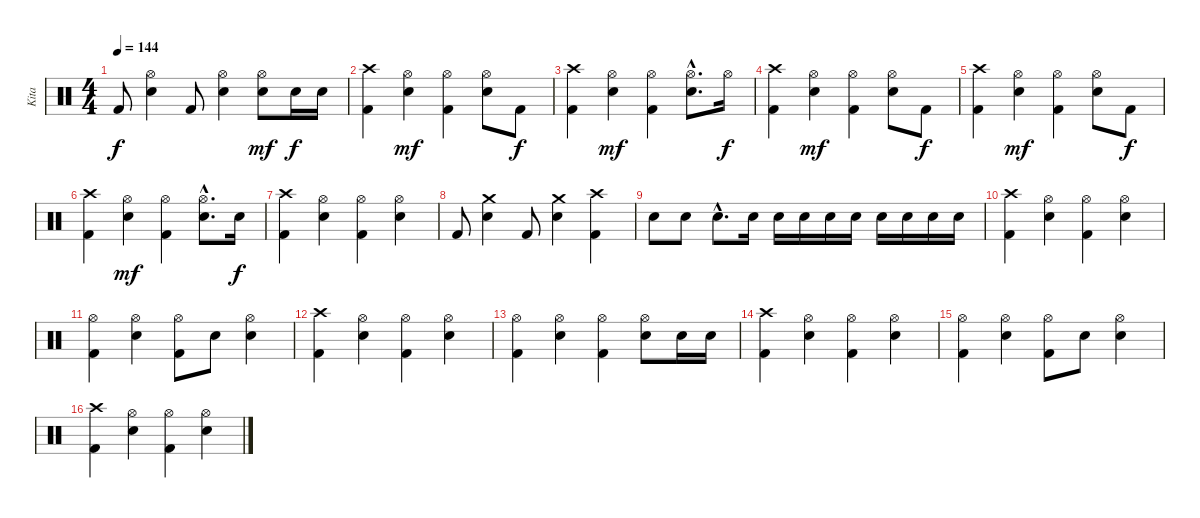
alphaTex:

\track ("Kita" "Kita") {instrument percussion}
\staff {score}
\articulation defaults
\ts (4 4)
\tempo 144
\clef neutral
\ks c "Kick (hit) 2".8{dy f}
("Hi-Hat (open)" "Snare (hit) 2").4 "Kick (hit) 2".8 ("Hi-Hat (open)" "Snare (hit) 2").4 ("Hi-Hat (open)" "Snare (hit) 2").8{dy mf} "Snare (hit) 2".16{dy f} "Snare (hit) 2".16 |
("Kick (hit) 2" "Crash high (hit)").4 ("Hi-Hat (open)" "Snare (hit) 2").4{dy mf} ("Kick (hit) 2" "Hi-Hat (open)").4 ("Hi-Hat (open)" "Snare (hit) 2").8 "Kick (hit) 2".8{dy f} |
("Kick (hit) 2" "Crash high (hit)").4 ("Hi-Hat (open)" "Snare (hit) 2").4{dy mf} ("Kick (hit) 2" "Hi-Hat (open)").4 ("Hi-Hat (open)"{hac} "Snare (hit) 2"{hac}).8{d} "Hi-Hat (open)".16{dy f} |
("Kick (hit) 2" "Crash high (hit)").4 ("Hi-Hat (open)" "Snare (hit) 2").4{dy mf} ("Kick (hit) 2" "Hi-Hat (open)").4 ("Hi-Hat (open)" "Snare (hit) 2").8 "Kick (hit) 2".8{dy f} |
("Kick (hit) 2" "Crash high (hit)").4 ("Hi-Hat (open)" "Snare (hit) 2").4{dy mf} ("Kick (hit) 2" "Hi-Hat (open)").4 ("Hi-Hat (open)" "Snare (hit) 2").8 "Kick (hit) 2".8{dy f} |
("Kick (hit) 2" "Crash high (hit)").4 ("Hi-Hat (open)" "Snare (hit) 2").4{dy mf} ("Kick (hit) 2" "Hi-Hat (open)").4 ("Hi-Hat (open)"{hac} "Snare (hit) 2"{hac}).8{d} "Snare (hit) 2".16{dy f} |
("Kick (hit) 2" "Crash high (hit)").4 ("Hi-Hat (open)" "Snare (hit) 2").4 ("Kick (hit) 2" "Hi-Hat (open)").4 ("Hi-Hat (open)" "Snare (hit) 2").4 |
"Kick (hit) 2".8 ("Crash medium (hit)" "Snare (hit) 2").4 "Kick (hit) 2".8 ("Crash medium (hit)" "Snare (hit) 2").4 ("Kick (hit) 2" "Crash high (hit)").4 |
"Snare (hit) 2".8 "Snare (hit) 2".8 "Snare (hit) 2"{hac}.8{d} "Snare (hit) 2".16 "Snare (hit) 2".16 "Snare (hit) 2".16 "Snare (hit) 2".16 "Snare (hit) 2".16 "Snare (hit) 2".16 "Snare (hit) 2".16 "Snare (hit) 2".16 "Snare (hit) 2".16 |
("Kick (hit) 2" "Crash high (hit)").4 ("Hi-Hat (open)" "Snare (hit) 2").4 ("Kick (hit) 2" "Hi-Hat (open)").4 ("Hi-Hat (open)" "Snare (hit) 2").4 |
("Kick (hit) 2" "Hi-Hat (open)").4 ("Hi-Hat (open)" "Snare (hit) 2").4 ("Kick (hit) 2" "Hi-Hat (open)").8 "Snare (hit) 2".8 ("Hi-Hat (open)" "Snare (hit) 2").4 |
("Kick (hit) 2" "Crash high (hit)").4 ("Hi-Hat (open)" "Snare (hit) 2").4 ("Kick (hit) 2" "Hi-Hat (open)").4 ("Hi-Hat (open)" "Snare (hit) 2").4 |
("Kick (hit) 2" "Hi-Hat (open)").4 ("Hi-Hat (open)" "Snare (hit) 2").4 ("Kick (hit) 2" "Hi-Hat (open)").4 ("Hi-Hat (open)" "Snare (hit) 2").8 "Snare (hit) 2".16 "Snare (hit) 2".16 |
("Kick (hit) 2" "Crash high (hit)").4 ("Hi-Hat (open)" "Snare (hit) 2").4 ("Kick (hit) 2" "Hi-Hat (open)").4 ("Hi-Hat (open)" "Snare (hit) 2").4 |
("Kick (hit) 2" "Hi-Hat (open)").4 ("Hi-Hat (open)" "Snare (hit) 2").4 ("Kick (hit) 2" "Hi-Hat (open)").8 "Snare (hit) 2".8 ("Hi-Hat (open)" "Snare (hit) 2").4 |
("Kick (hit) 2" "Crash high (hit)").4 ("Hi-Hat (open)" "Snare (hit) 2").4 ("Kick (hit) 2" "Hi-Hat (open)").4 ("Hi-Hat (open)" "Snare (hit) 2").4
